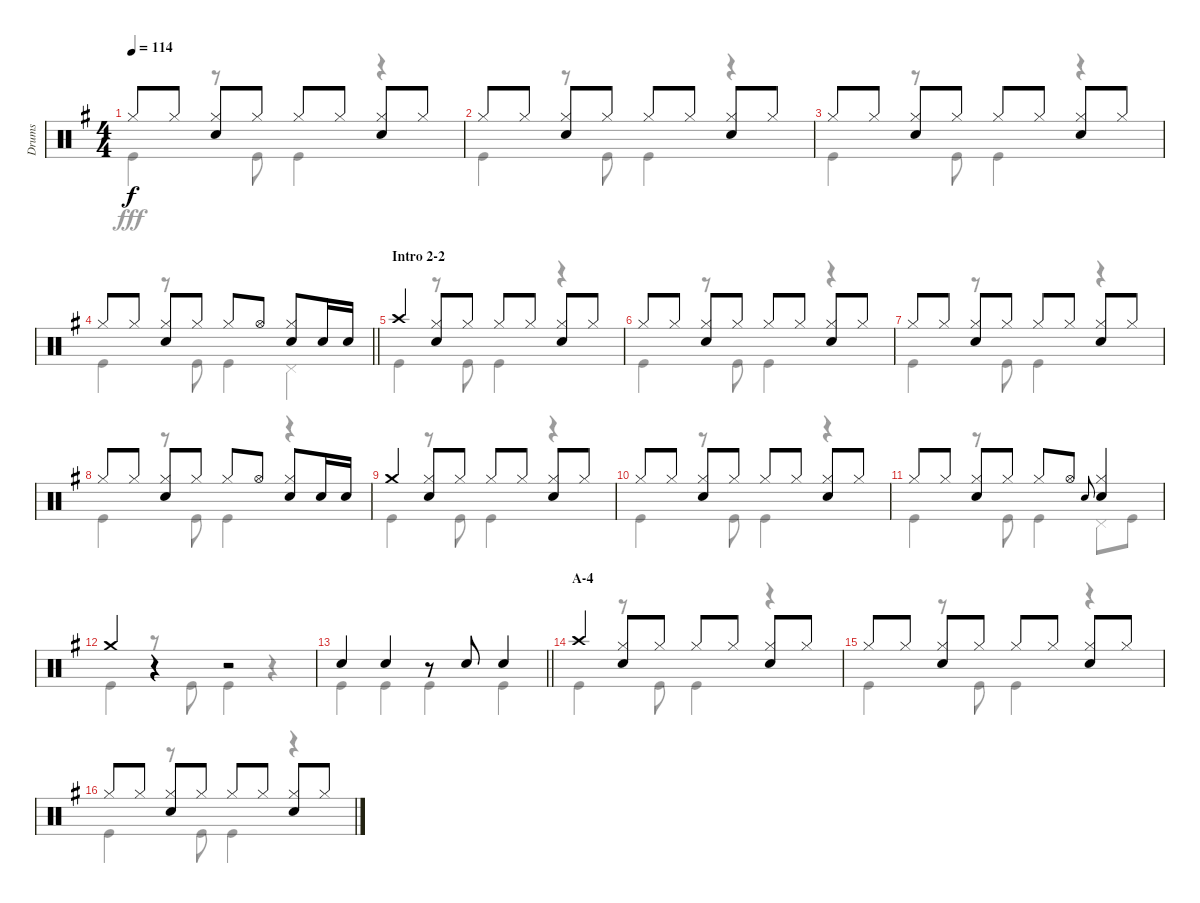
\track ("Drums" "Drums") {instrument percussion}
\staff {score}
\articulation defaults
\voice
\ts (4 4)
\tempo 114
\clef neutral
\ks g "Hi-Hat (closed)".8{dy f} "Hi-Hat (closed)".8
("Hi-Hat (closed)" "Snare (hit) 2").8 "Hi-Hat (closed)".8 "Hi-Hat (closed)".8 "Hi-Hat (closed)".8 ("Hi-Hat (closed)" "Snare (hit) 2").8 "Hi-Hat (closed)".8 |
"Hi-Hat (closed)".8 "Hi-Hat (closed)".8 ("Hi-Hat (closed)" "Snare (hit) 2").8 "Hi-Hat (closed)".8 "Hi-Hat (closed)".8 "Hi-Hat (closed)".8 ("Hi-Hat (closed)" "Snare (hit) 2").8 "Hi-Hat (closed)".8 |
"Hi-Hat (closed)".8 "Hi-Hat (closed)".8 ("Hi-Hat (closed)" "Snare (hit) 2").8 "Hi-Hat (closed)".8 "Hi-Hat (closed)".8 "Hi-Hat (closed)".8 ("Hi-Hat (closed)" "Snare (hit) 2").8 "Hi-Hat (closed)".8 |
\barLineRight lightlight "Hi-Hat (closed)".8 "Hi-Hat (closed)".8
("Hi-Hat (closed)" "Snare (hit) 2").8 "Hi-Hat (closed)".8 "Hi-Hat (closed)".8 "Hi-Hat (open)".8 ("Hi-Hat (closed)" "Snare (hit) 2").8 "Snare (hit) 2".16 "Snare (hit) 2".16 |
\section ("" "Intro 2-2")
"Crash high (hit)".4 ("Hi-Hat (closed)" "Snare (hit) 2").8 "Hi-Hat (closed)".8 "Hi-Hat (closed)".8 "Hi-Hat (closed)".8 ("Hi-Hat (closed)" "Snare (hit) 2").8 "Hi-Hat (closed)".8 |
"Hi-Hat (closed)".8 "Hi-Hat (closed)".8 ("Hi-Hat (closed)" "Snare (hit) 2").8 "Hi-Hat (closed)".8 "Hi-Hat (closed)".8 "Hi-Hat (closed)".8 ("Hi-Hat (closed)" "Snare (hit) 2").8 "Hi-Hat (closed)".8 |
"Hi-Hat (closed)".8 "Hi-Hat (closed)".8 ("Hi-Hat (closed)" "Snare (hit) 2").8 "Hi-Hat (closed)".8 "Hi-Hat (closed)".8 "Hi-Hat (closed)".8 ("Hi-Hat (closed)" "Snare (hit) 2").8 "Hi-Hat (closed)".8 |
"Hi-Hat (closed)".8 "Hi-Hat (closed)".8 ("Hi-Hat (closed)" "Snare (hit) 2").8 "Hi-Hat (closed)".8 "Hi-Hat (closed)".8 "Hi-Hat (open)".8 ("Hi-Hat (closed)" "Snare (hit) 2").8 "Snare (hit) 2".16 "Snare (hit) 2".16 |
"Crash medium (hit)".4 ("Hi-Hat (closed)" "Snare (hit) 2").8 "Hi-Hat (closed)".8 "Hi-Hat (closed)".8 "Hi-Hat (closed)".8 ("Hi-Hat (closed)" "Snare (hit) 2").8 "Hi-Hat (closed)".8 |
"Hi-Hat (closed)".8 "Hi-Hat (closed)".8 ("Hi-Hat (closed)" "Snare (hit) 2").8 "Hi-Hat (closed)".8 "Hi-Hat (closed)".8 "Hi-Hat (closed)".8 ("Hi-Hat (closed)" "Snare (hit) 2").8 "Hi-Hat (closed)".8 |
"Hi-Hat (closed)".8 "Hi-Hat (closed)".8 ("Hi-Hat (closed)" "Snare (hit) 2").8 "Hi-Hat (closed)".8 "Hi-Hat (closed)".8 "Hi-Hat (open)".8 "Snare (hit) 2".8{gr onbeat} ("Hi-Hat (closed)" "Snare (hit) 2").4 |
"Crash medium (hit)".4 r.4 r.2 |
\barLineRight lightlight "Snare (hit) 2".4 "Snare (hit) 2".4
r.8 "Snare (hit) 2".8 "Snare (hit) 2".4 |
\section ("" "A-4")
"Crash high (hit)".4 ("Hi-Hat (closed)" "Snare (hit) 2").8 "Hi-Hat (closed)".8 "Hi-Hat (closed)".8 "Hi-Hat (closed)".8 ("Hi-Hat (closed)" "Snare (hit) 2").8 "Hi-Hat (closed)".8 |
"Hi-Hat (closed)".8 "Hi-Hat (closed)".8 ("Hi-Hat (closed)" "Snare (hit) 2").8 "Hi-Hat (closed)".8 "Hi-Hat (closed)".8 "Hi-Hat (closed)".8 ("Hi-Hat (closed)" "Snare (hit) 2").8 "Hi-Hat (closed)".8 |
"Hi-Hat (closed)".8 "Hi-Hat (closed)".8 ("Hi-Hat (closed)" "Snare (hit) 2").8 "Hi-Hat (closed)".8 "Hi-Hat (closed)".8 "Hi-Hat (closed)".8 ("Hi-Hat (closed)" "Snare (hit) 2").8 "Hi-Hat (closed)".8
\voice
\clef neutral
\ottava regular
\simile none
\ks g "Kick (hit)".4{dy fff}
r.8 "Kick (hit)".8 "Kick (hit)".4 r.4 |
"Kick (hit)".4 r.8 "Kick (hit)".8 "Kick (hit)".4 r.4 |
"Kick (hit)".4 r.8 "Kick (hit)".8 "Kick (hit)".4 r.4 |
\barLineRight lightlight "Kick (hit)".4
r.8 "Kick (hit)".8 "Kick (hit)".4 "Pedal Hi-Hat (hit)".4 |
"Kick (hit)".4 r.8 "Kick (hit)".8 "Kick (hit)".4 r.4 |
"Kick (hit)".4 r.8 "Kick (hit)".8 "Kick (hit)".4 r.4 |
"Kick (hit)".4 r.8 "Kick (hit)".8 "Kick (hit)".4 r.4 |
"Kick (hit)".4 r.8 "Kick (hit)".8 "Kick (hit)".4 r.4 |
"Kick (hit)".4 r.8 "Kick (hit)".8 "Kick (hit)".4 r.4 |
"Kick (hit)".4 r.8 "Kick (hit)".8 "Kick (hit)".4 r.4 |
"Kick (hit)".4 r.8 "Kick (hit)".8 "Kick (hit)".4 "Pedal Hi-Hat (hit)".8 "Kick (hit)".8 |
"Kick (hit)".4 r.8 "Kick (hit)".8 "Kick (hit)".4 r.4 |
\barLineRight lightlight "Kick (hit)".4 "Kick (hit)".4 "Kick (hit)".4 "Kick (hit)".4
|
"Kick (hit)".4 r.8 "Kick (hit)".8 "Kick (hit)".4 r.4 |
"Kick (hit)".4 r.8 "Kick (hit)".8 "Kick (hit)".4 r.4 |
"Kick (hit)".4 r.8 "Kick (hit)".8 "Kick (hit)".4 r.4
